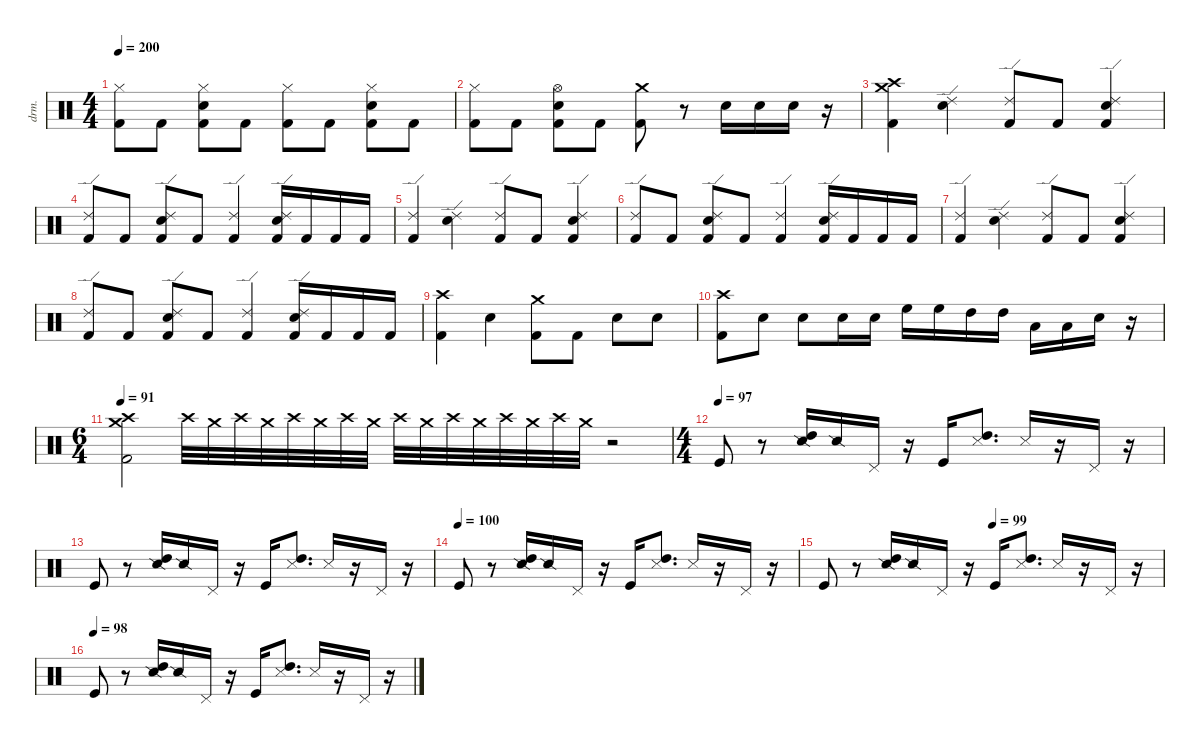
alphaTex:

\defaultSystemsLayout 4
\hideDynamics
\bracketExtendMode nobrackets
\track ("Drums" "drm.") {instrument percussion}
\staff {score}
\articulation defaults
\ts (4 4)
\tempo 200
\clef neutral
\ks c
("Hi-Hat (closed)" "Kick (hit) 2").8{dy f} "Kick (hit) 2".8 ("Hi-Hat (closed)" "Snare (hit) 2" "Kick (hit) 2").8 "Kick (hit) 2".8 ("Hi-Hat (closed)" "Kick (hit) 2").8 "Kick (hit) 2".8 ("Hi-Hat (closed)" "Snare (hit) 2" "Kick (hit) 2").8 "Kick (hit) 2".8 |
("Hi-Hat (closed)" "Kick (hit) 2").8 "Kick (hit) 2".8 ("Hi-Hat (open)" "Snare (hit) 2" "Kick (hit) 2").8 "Kick (hit) 2".8 ("Crash medium (hit)" "Kick (hit) 2").8{dy ff} r.8 "Snare (hit) 2".16{dy fff} "Snare (hit) 2".16 "Snare (hit) 2".16 r.16 |
("Crash high (hit)" "Crash medium (hit)" "Kick (hit) 2").4{dy mf} ("Ride (edge) 2" "Snare (hit) 2").4 ("Ride (edge) 2" "Kick (hit) 2").8 "Kick (hit) 2".8{dy f} ("Ride (edge) 2" "Snare (hit) 2" "Kick (hit) 2").4{dy mf} |
("Ride (edge) 2" "Kick (hit) 2").8{dy f} "Kick (hit) 2".8 ("Ride (edge) 2" "Snare (hit) 2" "Kick (hit) 2").8{dy mf} "Kick (hit) 2".8{dy f} ("Ride (edge) 2" "Kick (hit) 2").4{dy mf} ("Ride (edge) 2" "Snare (hit) 2" "Kick (hit) 2").16 "Kick (hit) 2".16{dy f} "Kick (hit) 2".16 "Kick (hit) 2".16 |
("Ride (edge) 2" "Kick (hit) 2").4{dy mf} ("Ride (edge) 2" "Snare (hit) 2").4 ("Ride (edge) 2" "Kick (hit) 2").8 "Kick (hit) 2".8{dy f} ("Ride (edge) 2" "Snare (hit) 2" "Kick (hit) 2").4{dy mf} |
("Ride (edge) 2" "Kick (hit) 2").8{dy f} "Kick (hit) 2".8 ("Ride (edge) 2" "Snare (hit) 2" "Kick (hit) 2").8{dy mf} "Kick (hit) 2".8{dy f} ("Ride (edge) 2" "Kick (hit) 2").4{dy mf} ("Ride (edge) 2" "Snare (hit) 2" "Kick (hit) 2").16 "Kick (hit) 2".16{dy f} "Kick (hit) 2".16 "Kick (hit) 2".16 |
("Ride (edge) 2" "Kick (hit) 2").4{dy mf} ("Ride (edge) 2" "Snare (hit) 2").4 ("Ride (edge) 2" "Kick (hit) 2").8 "Kick (hit) 2".8{dy f} ("Ride (edge) 2" "Snare (hit) 2" "Kick (hit) 2").4{dy mf} |
("Ride (edge) 2" "Kick (hit) 2").8{dy f} "Kick (hit) 2".8 ("Ride (edge) 2" "Snare (hit) 2" "Kick (hit) 2").8{dy mf} "Kick (hit) 2".8{dy f} ("Ride (edge) 2" "Kick (hit) 2").4{dy mf} ("Ride (edge) 2" "Snare (hit) 2" "Kick (hit) 2").16 "Kick (hit) 2".16{dy f} "Kick (hit) 2".16 "Kick (hit) 2".16 |
("Crash high (hit)" "Kick (hit) 2").4 "Snare (hit) 2".4 ("Crash medium (hit)" "Kick (hit) 2").8 "Kick (hit) 2".8 "Snare (hit) 2".8 "Snare (hit) 2".8 |
("Crash high (hit)" "Kick (hit) 2").8 "Snare (hit) 2".8{dy ff} "Snare (hit) 2".8 "Snare (hit) 2".16 "Snare (hit) 2".16 "High Floor Tom (hit)".16 "High Floor Tom (hit)".16 "High Tom (hit)".16 "High Tom (hit)".16 "Low Tom (hit)".16 "Low Tom (hit)".16 "Snare (hit) 2".16 r.16 |
\ts (6 4)
\beaming (8 6 6)
\tempo 91
("Crash high (hit)" "Crash medium (hit)" "Kick (hit) 2").2{dy f} "Crash high (hit)".32{dy ppp} "Crash medium (hit)".32 "Crash high (hit)".32 "Crash medium (hit)".32{dy pp} "Crash high (hit)".32 "Crash medium (hit)".32 "Crash high (hit)".32{dy p} "Crash medium (hit)".32 "Crash high (hit)".32 "Crash medium (hit)".32{dy mp} "Crash high (hit)".32 "Crash medium (hit)".32 "Crash high (hit)".32 "Crash medium (hit)".32 "Crash high (hit)".32 "Crash medium (hit)".32 r.2 |
\ts (4 4)
\beaming (8 2 2 2 2)
\tempo (97)
"Kick (hit)".8{dy mf} r.8 ("High Tom (hit)" "Snare (side stick) 2").16{dy mp} "Snare (side stick) 2".16{dy mf} "Pedal Hi-Hat (hit)".16{dy mp} r.16 "Kick (hit)".16{dy mf} ("High Tom (hit)" "Snare (side stick) 3").8{d dy mp} "Snare (side stick) 3".16{dy mf} r.16 "Pedal Hi-Hat (hit)".16{dy mp} r.16 |
"Kick (hit)".8{dy mf} r.8 ("High Tom (hit)" "Snare (side stick) 2").16{dy mp} "Snare (side stick) 2".16{dy mf} "Pedal Hi-Hat (hit)".16{dy mp} r.16 "Kick (hit)".16{dy mf} ("High Tom (hit)" "Snare (side stick) 3").8{d dy mp} "Snare (side stick) 3".16{dy mf} r.16 "Pedal Hi-Hat (hit)".16{dy mp} r.16 |
\tempo (100)
"Kick (hit)".8{dy mf} r.8 ("High Tom (hit)" "Snare (side stick) 2").16{dy mp} "Snare (side stick) 2".16{dy mf} "Pedal Hi-Hat (hit)".16{dy mp} r.16 "Kick (hit)".16{dy mf} ("High Tom (hit)" "Snare (side stick) 3").8{d dy mp} "Snare (side stick) 3".16{dy mf} r.16 "Pedal Hi-Hat (hit)".16{dy mp} r.16 |
\tempo (99 0.5)
"Kick (hit)".8{dy mf} r.8 ("High Tom (hit)" "Snare (side stick) 2").16{dy mp} "Snare (side stick) 2".16{dy mf} "Pedal Hi-Hat (hit)".16{dy mp} r.16 "Kick (hit)".16{dy mf} ("High Tom (hit)" "Snare (side stick) 3").8{d dy mp} "Snare (side stick) 3".16{dy mf} r.16 "Pedal Hi-Hat (hit)".16{dy mp} r.16 |
\tempo (98)
"Kick (hit)".8{dy mf} r.8 ("High Tom (hit)" "Snare (side stick) 2").16{dy mp} "Snare (side stick) 2".16{dy mf} "Pedal Hi-Hat (hit)".16{dy mp} r.16 "Kick (hit)".16{dy mf} ("High Tom (hit)" "Snare (side stick) 3").8{d dy mp} "Snare (side stick) 3".16{dy mf} r.16 "Pedal Hi-Hat (hit)".16{dy mp} r.16
